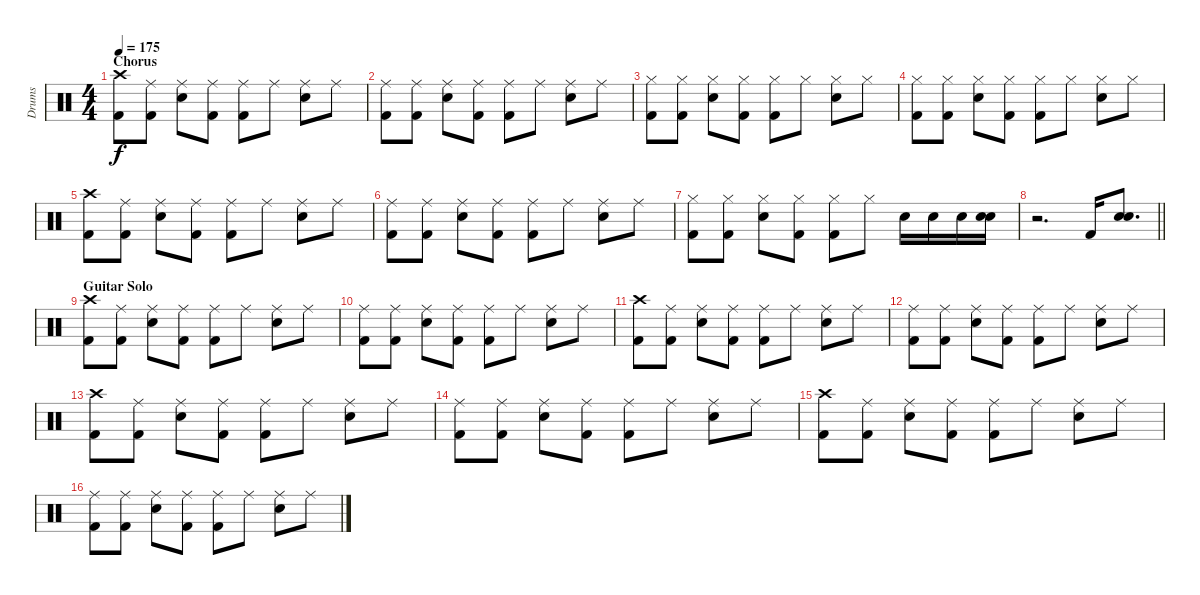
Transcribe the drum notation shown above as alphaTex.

\track ("Drums" "Drums") {instrument percussion}
\staff {score}
\articulation defaults
\ts (4 4)
\section ("" "Chorus")
\tempo 175
\clef neutral
\ks c
("Crash high (hit)" "Kick (hit) 2").8{dy f} ("Ride (middle)" "Kick (hit) 2").8 ("Ride (middle)" "Snare (hit) 2").8 ("Ride (middle)" "Kick (hit) 2").8 ("Ride (middle)" "Kick (hit) 2").8 "Ride (middle)".8 ("Ride (middle)" "Snare (hit) 2").8 "Ride (middle)".8 |
("Ride (middle)" "Kick (hit) 2").8 ("Ride (middle)" "Kick (hit) 2").8 ("Ride (middle)" "Snare (hit) 2").8 ("Ride (middle)" "Kick (hit) 2").8 ("Ride (middle)" "Kick (hit) 2").8 "Ride (middle)".8 ("Ride (middle)" "Snare (hit) 2").8 "Ride (middle)".8 |
("Hi-Hat (closed)" "Kick (hit) 2").8 ("Hi-Hat (closed)" "Kick (hit) 2").8 ("Hi-Hat (closed)" "Snare (hit) 2").8 ("Hi-Hat (closed)" "Kick (hit) 2").8 ("Hi-Hat (closed)" "Kick (hit) 2").8 "Hi-Hat (closed)".8 ("Hi-Hat (closed)" "Snare (hit) 2").8 "Hi-Hat (closed)".8 |
("Hi-Hat (closed)" "Kick (hit) 2").8 ("Hi-Hat (closed)" "Kick (hit) 2").8 ("Hi-Hat (closed)" "Snare (hit) 2").8 ("Hi-Hat (closed)" "Kick (hit) 2").8 ("Hi-Hat (closed)" "Kick (hit) 2").8 "Hi-Hat (closed)".8 ("Hi-Hat (closed)" "Snare (hit) 2").8 "Hi-Hat (closed)".8 |
("Crash high (hit)" "Kick (hit) 2").8 ("Ride (middle)" "Kick (hit) 2").8 ("Ride (middle)" "Snare (hit) 2").8 ("Ride (middle)" "Kick (hit) 2").8 ("Ride (middle)" "Kick (hit) 2").8 "Ride (middle)".8 ("Ride (middle)" "Snare (hit) 2").8 "Ride (middle)".8 |
("Ride (middle)" "Kick (hit) 2").8 ("Ride (middle)" "Kick (hit) 2").8 ("Ride (middle)" "Snare (hit) 2").8 ("Ride (middle)" "Kick (hit) 2").8 ("Ride (middle)" "Kick (hit) 2").8 "Ride (middle)".8 ("Ride (middle)" "Snare (hit) 2").8 "Ride (middle)".8 |
("Hi-Hat (closed)" "Kick (hit) 2").8 ("Hi-Hat (closed)" "Kick (hit) 2").8 ("Hi-Hat (closed)" "Snare (hit) 2").8 ("Hi-Hat (closed)" "Kick (hit) 2").8 ("Hi-Hat (closed)" "Kick (hit) 2").8 "Hi-Hat (closed)".8 "Snare (hit) 2".16 "Snare (hit) 2".16 "Snare (hit) 2".16 ("Snare (hit) 2" "Snare (hit) 2").16 |
\barLineRight lightlight
r.2{d} "Kick (hit) 2".16 ("Snare (hit) 2" "Snare (hit) 2").8{d} |
\section ("" "Guitar Solo")
("Crash high (hit)" "Kick (hit) 2").8 ("Ride (middle)" "Kick (hit) 2").8 ("Ride (middle)" "Snare (hit) 2").8 ("Ride (middle)" "Kick (hit) 2").8 ("Ride (middle)" "Kick (hit) 2").8 "Ride (middle)".8 ("Ride (middle)" "Snare (hit) 2").8 "Ride (middle)".8 |
("Ride (middle)" "Kick (hit) 2").8 ("Ride (middle)" "Kick (hit) 2").8 ("Ride (middle)" "Snare (hit) 2").8 ("Ride (middle)" "Kick (hit) 2").8 ("Ride (middle)" "Kick (hit) 2").8 "Ride (middle)".8 ("Ride (middle)" "Snare (hit) 2").8 "Ride (middle)".8 |
("Crash high (hit)" "Kick (hit) 2").8 ("Ride (middle)" "Kick (hit) 2").8 ("Ride (middle)" "Snare (hit) 2").8 ("Ride (middle)" "Kick (hit) 2").8 ("Ride (middle)" "Kick (hit) 2").8 "Ride (middle)".8 ("Ride (middle)" "Snare (hit) 2").8 "Ride (middle)".8 |
("Ride (middle)" "Kick (hit) 2").8 ("Ride (middle)" "Kick (hit) 2").8 ("Ride (middle)" "Snare (hit) 2").8 ("Ride (middle)" "Kick (hit) 2").8 ("Ride (middle)" "Kick (hit) 2").8 "Ride (middle)".8 ("Ride (middle)" "Snare (hit) 2").8 "Ride (middle)".8 |
("Crash high (hit)" "Kick (hit) 2").8 ("Ride (middle)" "Kick (hit) 2").8 ("Ride (middle)" "Snare (hit) 2").8 ("Ride (middle)" "Kick (hit) 2").8 ("Ride (middle)" "Kick (hit) 2").8 "Ride (middle)".8 ("Ride (middle)" "Snare (hit) 2").8 "Ride (middle)".8 |
("Ride (middle)" "Kick (hit) 2").8 ("Ride (middle)" "Kick (hit) 2").8 ("Ride (middle)" "Snare (hit) 2").8 ("Ride (middle)" "Kick (hit) 2").8 ("Ride (middle)" "Kick (hit) 2").8 "Ride (middle)".8 ("Ride (middle)" "Snare (hit) 2").8 "Ride (middle)".8 |
("Crash high (hit)" "Kick (hit) 2").8 ("Ride (middle)" "Kick (hit) 2").8 ("Ride (middle)" "Snare (hit) 2").8 ("Ride (middle)" "Kick (hit) 2").8 ("Ride (middle)" "Kick (hit) 2").8 "Ride (middle)".8 ("Ride (middle)" "Snare (hit) 2").8 "Ride (middle)".8 |
("Ride (middle)" "Kick (hit) 2").8 ("Ride (middle)" "Kick (hit) 2").8 ("Ride (middle)" "Snare (hit) 2").8 ("Ride (middle)" "Kick (hit) 2").8 ("Ride (middle)" "Kick (hit) 2").8 "Ride (middle)".8 ("Ride (middle)" "Snare (hit) 2").8 "Ride (middle)".8
